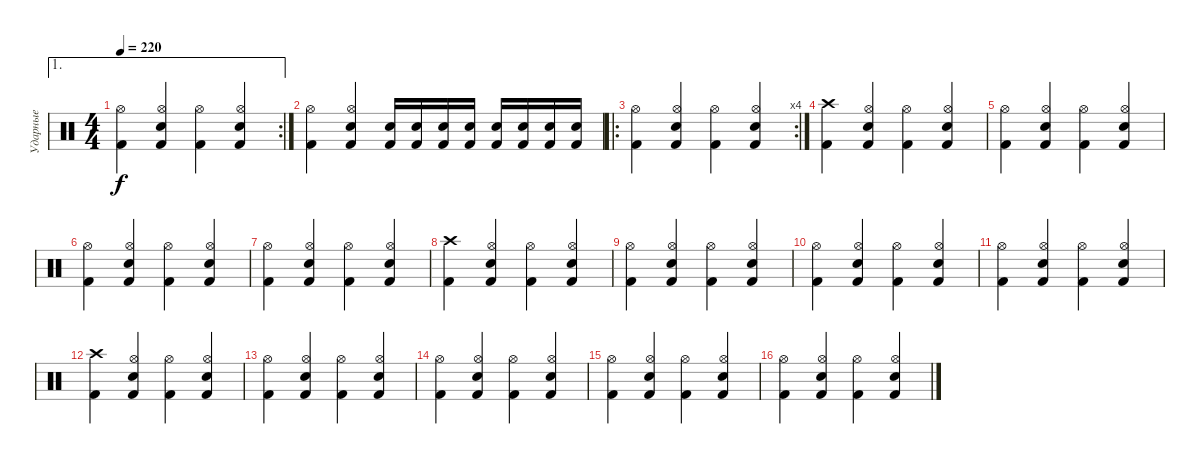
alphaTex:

\track ("Ударные" "Ударные") {instrument percussion}
\staff
\articulation defaults
\ae 1
\rc 2
\ts (4 4)
\tempo 220
\clef neutral
\ks c
("Kick (hit) 2" "Hi-Hat (open)").4{dy f} ("Kick (hit) 2" "Snare (hit) 2" "Hi-Hat (open)").4 ("Kick (hit) 2" "Hi-Hat (open)").4 ("Kick (hit) 2" "Snare (hit) 2" "Hi-Hat (open)").4 |
("Kick (hit) 2" "Hi-Hat (open)").4 ("Kick (hit) 2" "Snare (hit) 2" "Hi-Hat (open)").4 ("Kick (hit) 2" "Snare (hit) 2").16 ("Kick (hit) 2" "Snare (hit) 2").16 ("Kick (hit) 2" "Snare (hit) 2").16 ("Kick (hit) 2" "Snare (hit) 2").16 ("Kick (hit) 2" "Snare (hit) 2").16 ("Kick (hit) 2" "Snare (hit) 2").16 ("Kick (hit) 2" "Snare (hit) 2").16 ("Kick (hit) 2" "Snare (hit) 2").16 |
\ro
\rc 4
("Kick (hit) 2" "Hi-Hat (open)").4 ("Kick (hit) 2" "Snare (hit) 2" "Hi-Hat (open)").4 ("Kick (hit) 2" "Hi-Hat (open)").4 ("Kick (hit) 2" "Snare (hit) 2" "Hi-Hat (open)").4 |
("Kick (hit) 2" "Crash high (hit)").4 ("Kick (hit) 2" "Snare (hit) 2" "Hi-Hat (open)").4 ("Kick (hit) 2" "Hi-Hat (open)").4 ("Kick (hit) 2" "Snare (hit) 2" "Hi-Hat (open)").4 |
("Kick (hit) 2" "Hi-Hat (open)").4 ("Kick (hit) 2" "Snare (hit) 2" "Hi-Hat (open)").4 ("Kick (hit) 2" "Hi-Hat (open)").4 ("Kick (hit) 2" "Snare (hit) 2" "Hi-Hat (open)").4 |
("Kick (hit) 2" "Hi-Hat (open)").4 ("Kick (hit) 2" "Snare (hit) 2" "Hi-Hat (open)").4 ("Kick (hit) 2" "Hi-Hat (open)").4 ("Kick (hit) 2" "Snare (hit) 2" "Hi-Hat (open)").4 |
("Kick (hit) 2" "Hi-Hat (open)").4 ("Kick (hit) 2" "Snare (hit) 2" "Hi-Hat (open)").4 ("Kick (hit) 2" "Hi-Hat (open)").4 ("Kick (hit) 2" "Snare (hit) 2" "Hi-Hat (open)").4 |
("Kick (hit) 2" "Crash high (hit)").4 ("Kick (hit) 2" "Snare (hit) 2" "Hi-Hat (open)").4 ("Kick (hit) 2" "Hi-Hat (open)").4 ("Kick (hit) 2" "Snare (hit) 2" "Hi-Hat (open)").4 |
("Kick (hit) 2" "Hi-Hat (open)").4 ("Kick (hit) 2" "Snare (hit) 2" "Hi-Hat (open)").4 ("Kick (hit) 2" "Hi-Hat (open)").4 ("Kick (hit) 2" "Snare (hit) 2" "Hi-Hat (open)").4 |
("Kick (hit) 2" "Hi-Hat (open)").4 ("Kick (hit) 2" "Snare (hit) 2" "Hi-Hat (open)").4 ("Kick (hit) 2" "Hi-Hat (open)").4 ("Kick (hit) 2" "Snare (hit) 2" "Hi-Hat (open)").4 |
("Kick (hit) 2" "Hi-Hat (open)").4 ("Kick (hit) 2" "Snare (hit) 2" "Hi-Hat (open)").4 ("Kick (hit) 2" "Hi-Hat (open)").4 ("Kick (hit) 2" "Snare (hit) 2" "Hi-Hat (open)").4 |
("Kick (hit) 2" "Crash high (hit)").4 ("Kick (hit) 2" "Snare (hit) 2" "Hi-Hat (open)").4 ("Kick (hit) 2" "Hi-Hat (open)").4 ("Kick (hit) 2" "Snare (hit) 2" "Hi-Hat (open)").4 |
("Kick (hit) 2" "Hi-Hat (open)").4 ("Kick (hit) 2" "Snare (hit) 2" "Hi-Hat (open)").4 ("Kick (hit) 2" "Hi-Hat (open)").4 ("Kick (hit) 2" "Snare (hit) 2" "Hi-Hat (open)").4 |
("Kick (hit) 2" "Hi-Hat (open)").4 ("Kick (hit) 2" "Snare (hit) 2" "Hi-Hat (open)").4 ("Kick (hit) 2" "Hi-Hat (open)").4 ("Kick (hit) 2" "Snare (hit) 2" "Hi-Hat (open)").4 |
("Kick (hit) 2" "Hi-Hat (open)").4 ("Kick (hit) 2" "Snare (hit) 2" "Hi-Hat (open)").4 ("Kick (hit) 2" "Hi-Hat (open)").4 ("Kick (hit) 2" "Snare (hit) 2" "Hi-Hat (open)").4 |
("Kick (hit) 2" "Hi-Hat (open)").4 ("Kick (hit) 2" "Snare (hit) 2" "Hi-Hat (open)").4 ("Kick (hit) 2" "Hi-Hat (open)").4 ("Kick (hit) 2" "Snare (hit) 2" "Hi-Hat (open)").4
